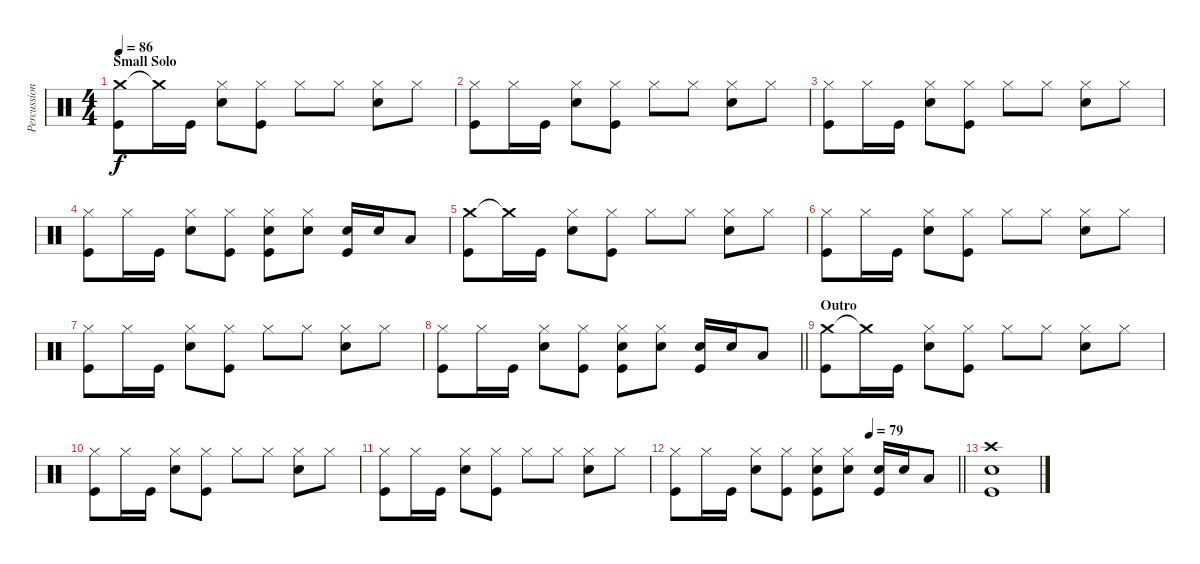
\track ("Percussion" "Percussion") {instrument percussion}
\staff {score}
\articulation defaults
\ts (4 4)
\section ("" "Small Solo")
\tempo 86
\clef neutral
\ks c
("Crash medium (hit)" "Kick (hit)").8{dy f} "Crash medium (hit)"{t}.16 "Kick (hit)".16 ("Hi-Hat (closed)" "Snare (hit) 2").8 ("Hi-Hat (closed)" "Kick (hit)").8 "Hi-Hat (closed)".8 "Hi-Hat (closed)".8 ("Hi-Hat (closed)" "Snare (hit) 2").8 "Hi-Hat (closed)".8 |
("Hi-Hat (closed)" "Kick (hit)").8 "Hi-Hat (closed)".16 "Kick (hit)".16 ("Hi-Hat (closed)" "Snare (hit) 2").8 ("Hi-Hat (closed)" "Kick (hit)").8 "Hi-Hat (closed)".8 "Hi-Hat (closed)".8 ("Hi-Hat (closed)" "Snare (hit) 2").8 "Hi-Hat (closed)".8 |
("Hi-Hat (closed)" "Kick (hit)").8 "Hi-Hat (closed)".16 "Kick (hit)".16 ("Hi-Hat (closed)" "Snare (hit) 2").8 ("Hi-Hat (closed)" "Kick (hit)").8 "Hi-Hat (closed)".8 "Hi-Hat (closed)".8 ("Hi-Hat (closed)" "Snare (hit) 2").8 "Hi-Hat (closed)".8 |
("Hi-Hat (closed)" "Kick (hit)").8 "Hi-Hat (closed)".16 "Kick (hit)".16 ("Hi-Hat (closed)" "Snare (hit) 2").8 ("Hi-Hat (closed)" "Kick (hit)").8 ("Hi-Hat (closed)" "Snare (hit) 2" "Kick (hit)").8 ("Hi-Hat (closed)" "Snare (hit) 2").8 ("Snare (hit) 2" "Kick (hit)").16 "Snare (hit) 2".16 "Low Tom (hit)".8 |
("Crash medium (hit)" "Kick (hit)").8 "Crash medium (hit)"{t}.16 "Kick (hit)".16 ("Hi-Hat (closed)" "Snare (hit) 2").8 ("Hi-Hat (closed)" "Kick (hit)").8 "Hi-Hat (closed)".8 "Hi-Hat (closed)".8 ("Hi-Hat (closed)" "Snare (hit) 2").8 "Hi-Hat (closed)".8 |
("Hi-Hat (closed)" "Kick (hit)").8 "Hi-Hat (closed)".16 "Kick (hit)".16 ("Hi-Hat (closed)" "Snare (hit) 2").8 ("Hi-Hat (closed)" "Kick (hit)").8 "Hi-Hat (closed)".8 "Hi-Hat (closed)".8 ("Hi-Hat (closed)" "Snare (hit) 2").8 "Hi-Hat (closed)".8 |
("Hi-Hat (closed)" "Kick (hit)").8 "Hi-Hat (closed)".16 "Kick (hit)".16 ("Hi-Hat (closed)" "Snare (hit) 2").8 ("Hi-Hat (closed)" "Kick (hit)").8 "Hi-Hat (closed)".8 "Hi-Hat (closed)".8 ("Hi-Hat (closed)" "Snare (hit) 2").8 "Hi-Hat (closed)".8 |
\barLineRight lightlight
("Hi-Hat (closed)" "Kick (hit)").8 "Hi-Hat (closed)".16 "Kick (hit)".16 ("Hi-Hat (closed)" "Snare (hit) 2").8 ("Hi-Hat (closed)" "Kick (hit)").8 ("Hi-Hat (closed)" "Snare (hit) 2" "Kick (hit)").8 ("Hi-Hat (closed)" "Snare (hit) 2").8 ("Snare (hit) 2" "Kick (hit)").16 "Snare (hit) 2".16 "Low Tom (hit)".8 |
\section ("" "Outro")
("Crash medium (hit)" "Kick (hit)").8 "Crash medium (hit)"{t}.16 "Kick (hit)".16 ("Hi-Hat (closed)" "Snare (hit) 2").8 ("Hi-Hat (closed)" "Kick (hit)").8 "Hi-Hat (closed)".8 "Hi-Hat (closed)".8 ("Hi-Hat (closed)" "Snare (hit) 2").8 "Hi-Hat (closed)".8 |
("Hi-Hat (closed)" "Kick (hit)").8 "Hi-Hat (closed)".16 "Kick (hit)".16 ("Hi-Hat (closed)" "Snare (hit) 2").8 ("Hi-Hat (closed)" "Kick (hit)").8 "Hi-Hat (closed)".8 "Hi-Hat (closed)".8 ("Hi-Hat (closed)" "Snare (hit) 2").8 "Hi-Hat (closed)".8 |
("Hi-Hat (closed)" "Kick (hit)").8 "Hi-Hat (closed)".16 "Kick (hit)".16 ("Hi-Hat (closed)" "Snare (hit) 2").8 ("Hi-Hat (closed)" "Kick (hit)").8 "Hi-Hat (closed)".8 "Hi-Hat (closed)".8 ("Hi-Hat (closed)" "Snare (hit) 2").8 "Hi-Hat (closed)".8 |
\tempo (79 0.6875)
\barLineRight lightlight
("Hi-Hat (closed)" "Kick (hit)").8 "Hi-Hat (closed)".16 "Kick (hit)".16 ("Hi-Hat (closed)" "Snare (hit) 2").8 ("Hi-Hat (closed)" "Kick (hit)").8 ("Hi-Hat (closed)" "Snare (hit) 2" "Kick (hit)").8 ("Hi-Hat (closed)" "Snare (hit) 2").8 ("Snare (hit) 2" "Kick (hit)").16 "Snare (hit) 2".16 "Low Tom (hit)".8 |
("Crash high (hit)" "Snare (hit) 2" "Kick (hit)").1
